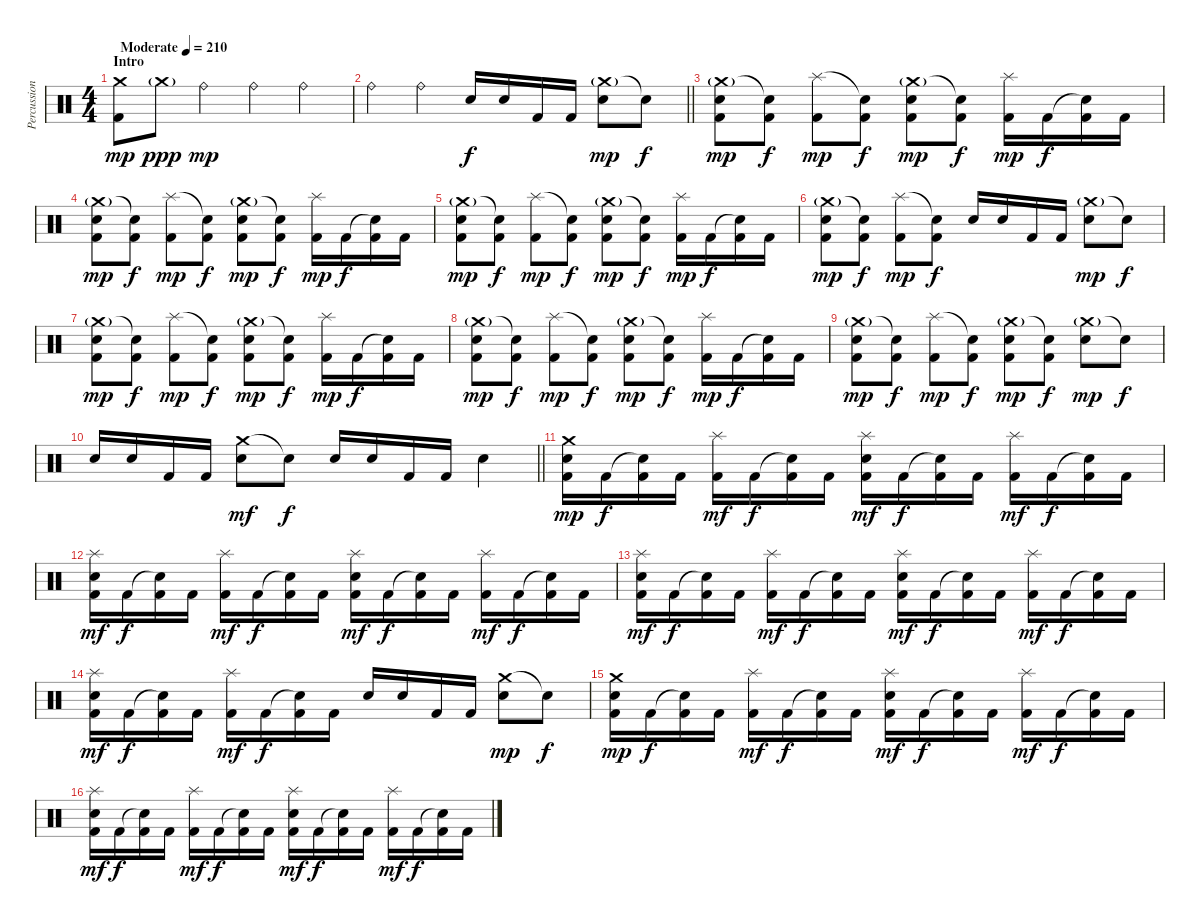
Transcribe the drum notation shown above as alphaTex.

\track ("Percussion" "Percussion") {instrument percussion}
\staff {score}
\articulation defaults
\ts (4 4)
\section ("" "Intro")
\tempo (210 "Moderate")
\clef neutral
\ks c
("Crash medium (hit)" "Kick (hit) 2").8{dy mp} "Crash medium (hit)"{g}.8{dy ppp} "Ride (bell)".4{dy mp} "Ride (bell)".4 "Ride (bell)".4 |
\barLineRight lightlight "Ride (bell)".4 "Ride (bell)".4 "Electric Snare (hit)".16{dy f} "Electric Snare (hit)".16 "Kick (hit) 2".16 "Kick (hit) 2".16
("Crash medium (hit)"{g} "Electric Snare (hit)").8{dy mp} "Snare (hit)"{t}.8{dy f} |
("Crash medium (hit)"{g} "Electric Snare (hit)" "Kick (hit) 2").8{dy mp} ("Snare (hit)"{t} "Kick (hit) 2").8{dy f} ("Splash (hit)" "Kick (hit) 2").8{dy mp} ("Snare (hit)"{t} "Kick (hit) 2").8{dy f} ("Crash medium (hit)"{g} "Electric Snare (hit)" "Kick (hit) 2").8{dy mp} ("Snare (hit)"{t} "Kick (hit) 2").8{dy f} ("Splash (hit)" "Kick (hit) 2").16{dy mp} "Kick (hit) 2".16{dy f} ("Snare (hit)"{t} "Kick (hit) 2").16 "Kick (hit) 2".16 |
("Crash medium (hit)"{g} "Electric Snare (hit)" "Kick (hit) 2").8{dy mp} ("Snare (hit)"{t} "Kick (hit) 2").8{dy f} ("Splash (hit)" "Kick (hit) 2").8{dy mp} ("Snare (hit)"{t} "Kick (hit) 2").8{dy f} ("Crash medium (hit)"{g} "Electric Snare (hit)" "Kick (hit) 2").8{dy mp} ("Snare (hit)"{t} "Kick (hit) 2").8{dy f} ("Splash (hit)" "Kick (hit) 2").16{dy mp} "Kick (hit) 2".16{dy f} ("Snare (hit)"{t} "Kick (hit) 2").16 "Kick (hit) 2".16 |
("Crash medium (hit)"{g} "Electric Snare (hit)" "Kick (hit) 2").8{dy mp} ("Snare (hit)"{t} "Kick (hit) 2").8{dy f} ("Splash (hit)" "Kick (hit) 2").8{dy mp} ("Snare (hit)"{t} "Kick (hit) 2").8{dy f} ("Crash medium (hit)"{g} "Electric Snare (hit)" "Kick (hit) 2").8{dy mp} ("Snare (hit)"{t} "Kick (hit) 2").8{dy f} ("Splash (hit)" "Kick (hit) 2").16{dy mp} "Kick (hit) 2".16{dy f} ("Snare (hit)"{t} "Kick (hit) 2").16 "Kick (hit) 2".16 |
("Crash medium (hit)"{g} "Electric Snare (hit)" "Kick (hit) 2").8{dy mp} ("Snare (hit)"{t} "Kick (hit) 2").8{dy f} ("Splash (hit)" "Kick (hit) 2").8{dy mp} ("Snare (hit)"{t} "Kick (hit) 2").8{dy f} "Electric Snare (hit)".16 "Electric Snare (hit)".16 "Kick (hit) 2".16 "Kick (hit) 2".16 ("Crash medium (hit)"{g} "Electric Snare (hit)").8{dy mp} "Snare (hit)"{t}.8{dy f} |
("Crash medium (hit)"{g} "Electric Snare (hit)" "Kick (hit) 2").8{dy mp} ("Snare (hit)"{t} "Kick (hit) 2").8{dy f} ("Splash (hit)" "Kick (hit) 2").8{dy mp} ("Snare (hit)"{t} "Kick (hit) 2").8{dy f} ("Crash medium (hit)"{g} "Electric Snare (hit)" "Kick (hit) 2").8{dy mp} ("Snare (hit)"{t} "Kick (hit) 2").8{dy f} ("Splash (hit)" "Kick (hit) 2").16{dy mp} "Kick (hit) 2".16{dy f} ("Snare (hit)"{t} "Kick (hit) 2").16 "Kick (hit) 2".16 |
("Crash medium (hit)"{g} "Electric Snare (hit)" "Kick (hit) 2").8{dy mp} ("Snare (hit)"{t} "Kick (hit) 2").8{dy f} ("Splash (hit)" "Kick (hit) 2").8{dy mp} ("Snare (hit)"{t} "Kick (hit) 2").8{dy f} ("Crash medium (hit)"{g} "Electric Snare (hit)" "Kick (hit) 2").8{dy mp} ("Snare (hit)"{t} "Kick (hit) 2").8{dy f} ("Splash (hit)" "Kick (hit) 2").16{dy mp} "Kick (hit) 2".16{dy f} ("Snare (hit)"{t} "Kick (hit) 2").16 "Kick (hit) 2".16 |
("Crash medium (hit)"{g} "Electric Snare (hit)" "Kick (hit) 2").8{dy mp} ("Snare (hit)"{t} "Kick (hit) 2").8{dy f} ("Splash (hit)" "Kick (hit) 2").8{dy mp} ("Snare (hit)"{t} "Kick (hit) 2").8{dy f} ("Crash medium (hit)"{g} "Electric Snare (hit)" "Kick (hit) 2").8{dy mp} ("Snare (hit)"{t} "Kick (hit) 2").8{dy f} ("Crash medium (hit)"{g} "Electric Snare (hit)").8{dy mp} "Snare (hit)"{t}.8{dy f} |
\barLineRight lightlight "Electric Snare (hit)".16 "Electric Snare (hit)".16 "Kick (hit) 2".16 "Kick (hit) 2".16
("Crash medium (hit)" "Electric Snare (hit)").8{dy mf} "Snare (hit)"{t}.8{dy f} "Electric Snare (hit)".16 "Electric Snare (hit)".16 "Kick (hit) 2".16 "Kick (hit) 2".16 "Electric Snare (hit)".4 |
("Crash medium (hit)" "Electric Snare (hit)" "Kick (hit) 2").16{dy mp} "Kick (hit) 2".16{dy f} ("Snare (hit)"{t} "Kick (hit) 2").16 "Kick (hit) 2".16 ("Splash (hit)" "Kick (hit) 2").16{dy mf} "Kick (hit) 2".16{dy f} ("Snare (hit)"{t} "Kick (hit) 2").16 "Kick (hit) 2".16 ("Splash (hit)" "Electric Snare (hit)" "Kick (hit) 2").16{dy mf} "Kick (hit) 2".16{dy f} ("Snare (hit)"{t} "Kick (hit) 2").16 "Kick (hit) 2".16 ("Splash (hit)" "Kick (hit) 2").16{dy mf} "Kick (hit) 2".16{dy f} ("Snare (hit)"{t} "Kick (hit) 2").16 "Kick (hit) 2".16 |
("Splash (hit)" "Electric Snare (hit)" "Kick (hit) 2").16{dy mf} "Kick (hit) 2".16{dy f} ("Snare (hit)"{t} "Kick (hit) 2").16 "Kick (hit) 2".16 ("Splash (hit)" "Kick (hit) 2").16{dy mf} "Kick (hit) 2".16{dy f} ("Snare (hit)"{t} "Kick (hit) 2").16 "Kick (hit) 2".16 ("Splash (hit)" "Electric Snare (hit)" "Kick (hit) 2").16{dy mf} "Kick (hit) 2".16{dy f} ("Snare (hit)"{t} "Kick (hit) 2").16 "Kick (hit) 2".16 ("Splash (hit)" "Kick (hit) 2").16{dy mf} "Kick (hit) 2".16{dy f} ("Snare (hit)"{t} "Kick (hit) 2").16 "Kick (hit) 2".16 |
("Splash (hit)" "Electric Snare (hit)" "Kick (hit) 2").16{dy mf} "Kick (hit) 2".16{dy f} ("Snare (hit)"{t} "Kick (hit) 2").16 "Kick (hit) 2".16 ("Splash (hit)" "Kick (hit) 2").16{dy mf} "Kick (hit) 2".16{dy f} ("Snare (hit)"{t} "Kick (hit) 2").16 "Kick (hit) 2".16 ("Splash (hit)" "Electric Snare (hit)" "Kick (hit) 2").16{dy mf} "Kick (hit) 2".16{dy f} ("Snare (hit)"{t} "Kick (hit) 2").16 "Kick (hit) 2".16 ("Splash (hit)" "Kick (hit) 2").16{dy mf} "Kick (hit) 2".16{dy f} ("Snare (hit)"{t} "Kick (hit) 2").16 "Kick (hit) 2".16 |
("Splash (hit)" "Electric Snare (hit)" "Kick (hit) 2").16{dy mf} "Kick (hit) 2".16{dy f} ("Snare (hit)"{t} "Kick (hit) 2").16 "Kick (hit) 2".16 ("Splash (hit)" "Kick (hit) 2").16{dy mf} "Kick (hit) 2".16{dy f} ("Snare (hit)"{t} "Kick (hit) 2").16 "Kick (hit) 2".16 "Electric Snare (hit)".16 "Electric Snare (hit)".16 "Kick (hit) 2".16 "Kick (hit) 2".16 ("Crash medium (hit)" "Electric Snare (hit)").8{dy mp} "Snare (hit)"{t}.8{dy f} |
("Crash medium (hit)" "Electric Snare (hit)" "Kick (hit) 2").16{dy mp} "Kick (hit) 2".16{dy f} ("Snare (hit)"{t} "Kick (hit) 2").16 "Kick (hit) 2".16 ("Splash (hit)" "Kick (hit) 2").16{dy mf} "Kick (hit) 2".16{dy f} ("Snare (hit)"{t} "Kick (hit) 2").16 "Kick (hit) 2".16 ("Splash (hit)" "Electric Snare (hit)" "Kick (hit) 2").16{dy mf} "Kick (hit) 2".16{dy f} ("Snare (hit)"{t} "Kick (hit) 2").16 "Kick (hit) 2".16 ("Splash (hit)" "Kick (hit) 2").16{dy mf} "Kick (hit) 2".16{dy f} ("Snare (hit)"{t} "Kick (hit) 2").16 "Kick (hit) 2".16 |
("Splash (hit)" "Electric Snare (hit)" "Kick (hit) 2").16{dy mf} "Kick (hit) 2".16{dy f} ("Snare (hit)"{t} "Kick (hit) 2").16 "Kick (hit) 2".16 ("Splash (hit)" "Kick (hit) 2").16{dy mf} "Kick (hit) 2".16{dy f} ("Snare (hit)"{t} "Kick (hit) 2").16 "Kick (hit) 2".16 ("Splash (hit)" "Electric Snare (hit)" "Kick (hit) 2").16{dy mf} "Kick (hit) 2".16{dy f} ("Snare (hit)"{t} "Kick (hit) 2").16 "Kick (hit) 2".16 ("Splash (hit)" "Kick (hit) 2").16{dy mf} "Kick (hit) 2".16{dy f} ("Snare (hit)"{t} "Kick (hit) 2").16 "Kick (hit) 2".16
